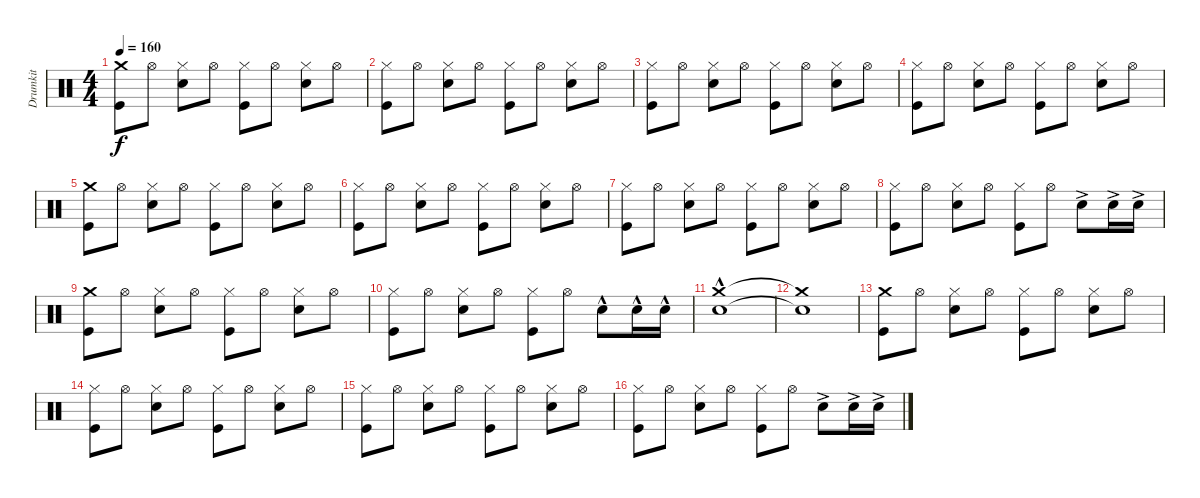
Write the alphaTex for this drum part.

\track ("Drumkit" "Drumkit") {instrument percussion}
\staff {score}
\articulation defaults
\ts (4 4)
\tempo 160
\clef neutral
\ks c
("Crash medium (hit)" "Kick (hit)").8{dy f} "Hi-Hat (open)".8 ("Snare (hit) 2" "Hi-Hat (closed)").8 "Hi-Hat (open)".8 ("Kick (hit)" "Hi-Hat (closed)").8 "Hi-Hat (open)".8 ("Snare (hit) 2" "Hi-Hat (closed)").8 "Hi-Hat (open)".8 |
("Hi-Hat (closed)" "Kick (hit)").8 "Hi-Hat (open)".8 ("Hi-Hat (closed)" "Snare (hit) 2").8 "Hi-Hat (open)".8 ("Hi-Hat (closed)" "Kick (hit)").8 "Hi-Hat (open)".8 ("Hi-Hat (closed)" "Snare (hit) 2").8 "Hi-Hat (open)".8 |
("Hi-Hat (closed)" "Kick (hit)").8 "Hi-Hat (open)".8 ("Hi-Hat (closed)" "Snare (hit) 2").8 "Hi-Hat (open)".8 ("Hi-Hat (closed)" "Kick (hit)").8 "Hi-Hat (open)".8 ("Hi-Hat (closed)" "Snare (hit) 2").8 "Hi-Hat (open)".8 |
("Hi-Hat (closed)" "Kick (hit)").8 "Hi-Hat (open)".8 ("Hi-Hat (closed)" "Snare (hit) 2").8 "Hi-Hat (open)".8 ("Hi-Hat (closed)" "Kick (hit)").8 "Hi-Hat (open)".8 ("Hi-Hat (closed)" "Snare (hit) 2").8 "Hi-Hat (open)".8 |
("Crash medium (hit)" "Kick (hit)").8 "Hi-Hat (open)".8 ("Snare (hit) 2" "Hi-Hat (closed)").8 "Hi-Hat (open)".8 ("Kick (hit)" "Hi-Hat (closed)").8 "Hi-Hat (open)".8 ("Snare (hit) 2" "Hi-Hat (closed)").8 "Hi-Hat (open)".8 |
("Hi-Hat (closed)" "Kick (hit)").8 "Hi-Hat (open)".8 ("Hi-Hat (closed)" "Snare (hit) 2").8 "Hi-Hat (open)".8 ("Hi-Hat (closed)" "Kick (hit)").8 "Hi-Hat (open)".8 ("Hi-Hat (closed)" "Snare (hit) 2").8 "Hi-Hat (open)".8 |
("Hi-Hat (closed)" "Kick (hit)").8 "Hi-Hat (open)".8 ("Hi-Hat (closed)" "Snare (hit) 2").8 "Hi-Hat (open)".8 ("Hi-Hat (closed)" "Kick (hit)").8 "Hi-Hat (open)".8 ("Hi-Hat (closed)" "Snare (hit) 2").8 "Hi-Hat (open)".8 |
("Hi-Hat (closed)" "Kick (hit)").8 "Hi-Hat (open)".8 ("Hi-Hat (closed)" "Snare (hit) 2").8 "Hi-Hat (open)".8 ("Hi-Hat (closed)" "Kick (hit)").8 "Hi-Hat (open)".8 "Snare (hit) 2"{ac}.8 "Snare (hit) 2"{ac}.16 "Snare (hit) 2"{ac}.16 |
("Crash medium (hit)" "Kick (hit)").8 "Hi-Hat (open)".8 ("Snare (hit) 2" "Hi-Hat (closed)").8 "Hi-Hat (open)".8 ("Kick (hit)" "Hi-Hat (closed)").8 "Hi-Hat (open)".8 ("Snare (hit) 2" "Hi-Hat (closed)").8 "Hi-Hat (open)".8 |
("Hi-Hat (closed)" "Kick (hit)").8 "Hi-Hat (open)".8 ("Hi-Hat (closed)" "Snare (hit) 2").8 "Hi-Hat (open)".8 ("Hi-Hat (closed)" "Kick (hit)").8 "Hi-Hat (open)".8 "Snare (hit) 2"{hac}.8 "Snare (hit) 2"{hac}.16 "Snare (hit) 2"{hac}.16 |
("Snare (hit) 2"{hac} "Crash medium (hit)").1 |
("Snare (hit) 2"{t} "Crash medium (hit)"{t}).1 |
("Crash medium (hit)" "Kick (hit)").8 "Hi-Hat (open)".8 ("Snare (hit) 2" "Hi-Hat (closed)").8 "Hi-Hat (open)".8 ("Kick (hit)" "Hi-Hat (closed)").8 "Hi-Hat (open)".8 ("Snare (hit) 2" "Hi-Hat (closed)").8 "Hi-Hat (open)".8 |
("Hi-Hat (closed)" "Kick (hit)").8 "Hi-Hat (open)".8 ("Hi-Hat (closed)" "Snare (hit) 2").8 "Hi-Hat (open)".8 ("Hi-Hat (closed)" "Kick (hit)").8 "Hi-Hat (open)".8 ("Hi-Hat (closed)" "Snare (hit) 2").8 "Hi-Hat (open)".8 |
("Hi-Hat (closed)" "Kick (hit)").8 "Hi-Hat (open)".8 ("Hi-Hat (closed)" "Snare (hit) 2").8 "Hi-Hat (open)".8 ("Hi-Hat (closed)" "Kick (hit)").8 "Hi-Hat (open)".8 ("Hi-Hat (closed)" "Snare (hit) 2").8 "Hi-Hat (open)".8 |
("Hi-Hat (closed)" "Kick (hit)").8 "Hi-Hat (open)".8 ("Hi-Hat (closed)" "Snare (hit) 2").8 "Hi-Hat (open)".8 ("Hi-Hat (closed)" "Kick (hit)").8 "Hi-Hat (open)".8 "Snare (hit) 2"{ac}.8 "Snare (hit) 2"{ac}.16 "Snare (hit) 2"{ac}.16
